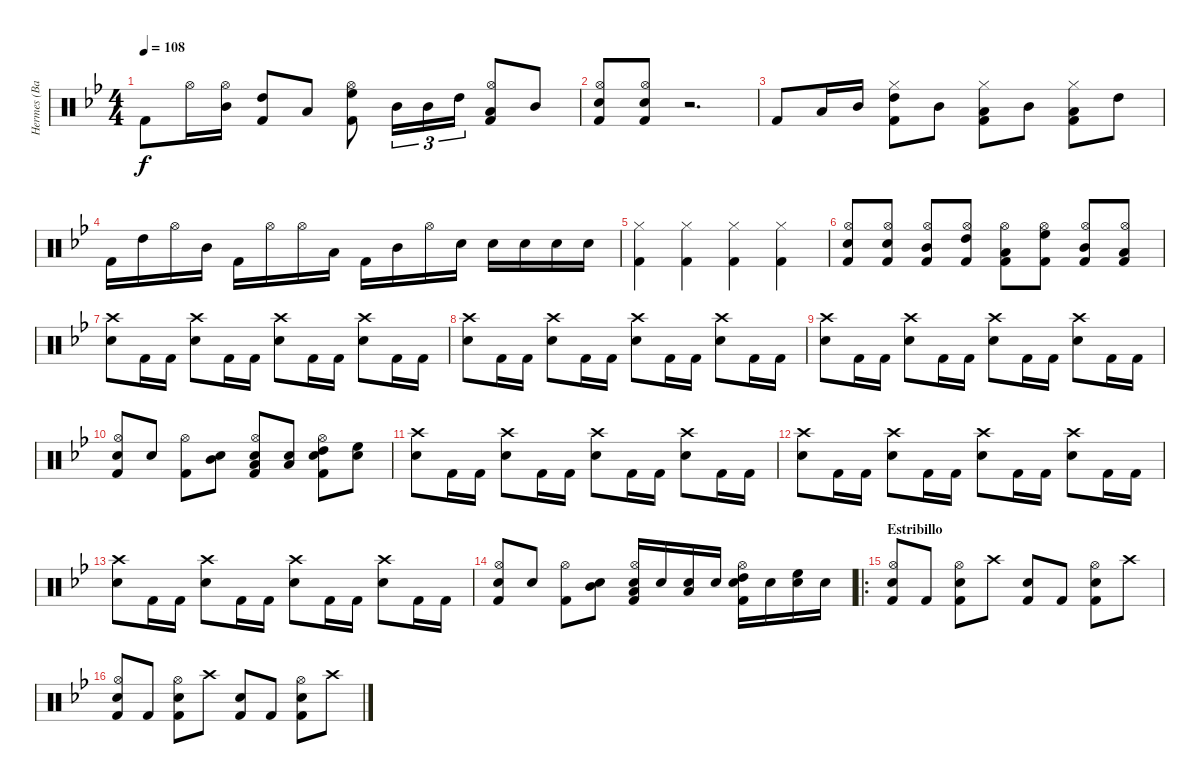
\track ("Hermes (Bateria)" "Hermes (Ba") {instrument percussion}
\staff {score}
\articulation defaults
\ts (4 4)
\tempo 108
\clef neutral
\ks bb "Kick (hit) 2".8{dy f} "Hi-Hat (open)".16
("Hi-Hat (open)" "Mid Tom (hit)").16 ("High Tom (hit)" "Kick (hit) 2").8 "Low Tom (hit)".8 ("Hi-Hat (open)" "High Floor Tom (hit)" "Kick (hit) 2").8 "Mid Tom (hit)".16{tu (3 2)} "Mid Tom (hit)".16{tu (3 2)} "High Tom (hit)".16{tu (3 2)} ("Hi-Hat (open)" "Low Tom (hit)" "Kick (hit) 2").8 "Mid Tom (hit)".8 |
("Hi-Hat (open)" "Electric Snare (hit)" "Kick (hit) 2").8 ("Hi-Hat (open)" "Electric Snare (hit)" "Kick (hit) 2").8 r.2{d} |
"Kick (hit) 2".8 "Low Tom (hit)".16 "Mid Tom (hit)".16 ("Hi-Hat (closed)" "High Tom (hit)" "Kick (hit) 2").8 "Mid Tom (hit)".8 ("Hi-Hat (closed)" "Low Tom (hit)" "Kick (hit) 2").8 "Mid Tom (hit)".8 ("Hi-Hat (closed)" "Low Tom (hit)" "Kick (hit) 2").8 "High Tom (hit)".8 |
"Kick (hit) 2".16 "High Tom (hit)".16 "Hi-Hat (open)".16 "Mid Tom (hit)".16 "Kick (hit) 2".16 "Hi-Hat (open)".16 "Hi-Hat (open)".16 "Low Tom (hit)".16 "Kick (hit) 2".16 "Mid Tom (hit)".16 "Hi-Hat (open)".16 "Snare (hit) 2".16 "Snare (hit) 2".16 "Snare (hit) 2".16 "Snare (hit) 2".16 "Snare (hit) 2".16 |
("Hi-Hat (closed)" "Kick (hit) 2").4 ("Hi-Hat (closed)" "Kick (hit) 2").4 ("Hi-Hat (closed)" "Kick (hit) 2").4 ("Hi-Hat (closed)" "Kick (hit) 2").4 |
("Hi-Hat (open)" "Electric Snare (hit)" "Kick (hit) 2").8 ("Hi-Hat (open)" "Electric Snare (hit)" "Kick (hit) 2").8 ("Hi-Hat (open)" "Mid Tom (hit)" "Kick (hit) 2").8 ("Hi-Hat (open)" "High Tom (hit)" "Kick (hit) 2").8 ("Hi-Hat (open)" "Low Tom (hit)" "Kick (hit) 2").8 ("Hi-Hat (open)" "High Floor Tom (hit)" "Kick (hit) 2").8 ("Hi-Hat (open)" "Mid Tom (hit)" "Kick (hit) 2").8 ("Hi-Hat (open)" "Low Tom (hit)" "Kick (hit) 2").8 |
("Snare (hit) 2" "Crash high (hit)").8 "Kick (hit) 2".16 "Kick (hit) 2".16 ("Snare (hit) 2" "Crash high (hit)").8 "Kick (hit) 2".16 "Kick (hit) 2".16 ("Snare (hit) 2" "Crash high (hit)").8 "Kick (hit) 2".16 "Kick (hit) 2".16 ("Snare (hit) 2" "Crash high (hit)").8 "Kick (hit) 2".16 "Kick (hit) 2".16 |
("Snare (hit) 2" "Crash high (hit)").8 "Kick (hit) 2".16 "Kick (hit) 2".16 ("Snare (hit) 2" "Crash high (hit)").8 "Kick (hit) 2".16 "Kick (hit) 2".16 ("Snare (hit) 2" "Crash high (hit)").8 "Kick (hit) 2".16 "Kick (hit) 2".16 ("Snare (hit) 2" "Crash high (hit)").8 "Kick (hit) 2".16 "Kick (hit) 2".16 |
("Snare (hit) 2" "Crash high (hit)").8 "Kick (hit) 2".16 "Kick (hit) 2".16 ("Snare (hit) 2" "Crash high (hit)").8 "Kick (hit) 2".16 "Kick (hit) 2".16 ("Snare (hit) 2" "Crash high (hit)").8 "Kick (hit) 2".16 "Kick (hit) 2".16 ("Snare (hit) 2" "Crash high (hit)").8 "Kick (hit) 2".16 "Kick (hit) 2".16 |
("Hi-Hat (open)" "Snare (hit) 2" "Kick (hit) 2").8 "Snare (hit) 2".8 ("Hi-Hat (open)" "Kick (hit) 2").8 ("Electric Snare (hit)" "Mid Tom (hit)").8 ("Hi-Hat (open)" "Electric Snare (hit)" "Low Tom (hit)" "Kick (hit) 2").8 ("Electric Snare (hit)" "Low Tom (hit)").8 ("Hi-Hat (open)" "Electric Snare (hit)" "High Tom (hit)" "Kick (hit) 2").8 ("Electric Snare (hit)" "High Floor Tom (hit)").8 |
("Snare (hit) 2" "Crash high (hit)").8 "Kick (hit) 2".16 "Kick (hit) 2".16 ("Snare (hit) 2" "Crash high (hit)").8 "Kick (hit) 2".16 "Kick (hit) 2".16 ("Snare (hit) 2" "Crash high (hit)").8 "Kick (hit) 2".16 "Kick (hit) 2".16 ("Snare (hit) 2" "Crash high (hit)").8 "Kick (hit) 2".16 "Kick (hit) 2".16 |
("Snare (hit) 2" "Crash high (hit)").8 "Kick (hit) 2".16 "Kick (hit) 2".16 ("Snare (hit) 2" "Crash high (hit)").8 "Kick (hit) 2".16 "Kick (hit) 2".16 ("Snare (hit) 2" "Crash high (hit)").8 "Kick (hit) 2".16 "Kick (hit) 2".16 ("Snare (hit) 2" "Crash high (hit)").8 "Kick (hit) 2".16 "Kick (hit) 2".16 |
("Snare (hit) 2" "Crash high (hit)").8 "Kick (hit) 2".16 "Kick (hit) 2".16 ("Snare (hit) 2" "Crash high (hit)").8 "Kick (hit) 2".16 "Kick (hit) 2".16 ("Snare (hit) 2" "Crash high (hit)").8 "Kick (hit) 2".16 "Kick (hit) 2".16 ("Snare (hit) 2" "Crash high (hit)").8 "Kick (hit) 2".16 "Kick (hit) 2".16 |
("Hi-Hat (open)" "Snare (hit) 2" "Kick (hit) 2").8 "Snare (hit) 2".8 ("Hi-Hat (open)" "Kick (hit) 2").8 ("Electric Snare (hit)" "Mid Tom (hit)").8 ("Hi-Hat (open)" "Electric Snare (hit)" "Low Tom (hit)" "Kick (hit) 2").16 "Electric Snare (hit)".16 ("Electric Snare (hit)" "Low Tom (hit)").16 "Electric Snare (hit)".16 ("Hi-Hat (open)" "Electric Snare (hit)" "High Tom (hit)" "Kick (hit) 2").16 "Electric Snare (hit)".16 ("Electric Snare (hit)" "High Floor Tom (hit)").16 "Electric Snare (hit)".16 |
\ro
\section ("" "Estribillo")
("Hi-Hat (open)" "Electric Snare (hit)" "Kick (hit) 2").8 "Kick (hit) 2".8 ("Hi-Hat (open)" "Electric Snare (hit)" "Kick (hit) 2").8 "Crash high (hit)".8 ("Electric Snare (hit)" "Kick (hit) 2").8 "Kick (hit) 2".8 ("Hi-Hat (open)" "Electric Snare (hit)" "Kick (hit) 2").8 "Crash high (hit)".8 |
("Hi-Hat (open)" "Electric Snare (hit)" "Kick (hit) 2").8 "Kick (hit) 2".8 ("Hi-Hat (open)" "Electric Snare (hit)" "Kick (hit) 2").8 "Crash high (hit)".8 ("Electric Snare (hit)" "Kick (hit) 2").8 "Kick (hit) 2".8 ("Hi-Hat (open)" "Electric Snare (hit)" "Kick (hit) 2").8 "Crash high (hit)".8
